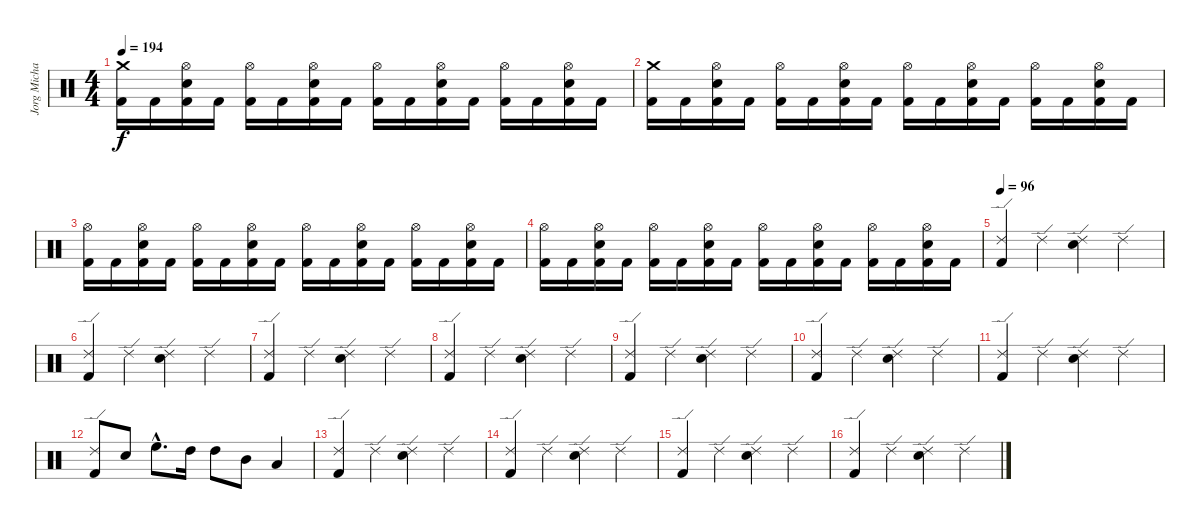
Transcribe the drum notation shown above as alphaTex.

\track ("Jorg Michael" "Jorg Micha") {instrument percussion}
\staff {score}
\articulation defaults
\ts (4 4)
\tempo 194
\clef neutral
\ks c
("Crash medium (hit)" "Kick (hit) 2").16{dy f} "Kick (hit) 2".16 ("Kick (hit) 2" "Snare (hit) 2" "Hi-Hat (open)").16 "Kick (hit) 2".16 ("Kick (hit) 2" "Hi-Hat (open)").16 "Kick (hit) 2".16 ("Kick (hit) 2" "Snare (hit) 2" "Hi-Hat (open)").16 "Kick (hit) 2".16 ("Kick (hit) 2" "Hi-Hat (open)").16 "Kick (hit) 2".16 ("Kick (hit) 2" "Snare (hit) 2" "Hi-Hat (open)").16 "Kick (hit) 2".16 ("Kick (hit) 2" "Hi-Hat (open)").16 "Kick (hit) 2".16 ("Kick (hit) 2" "Snare (hit) 2" "Hi-Hat (open)").16 "Kick (hit) 2".16 |
("Crash medium (hit)" "Kick (hit) 2").16 "Kick (hit) 2".16 ("Kick (hit) 2" "Snare (hit) 2" "Hi-Hat (open)").16 "Kick (hit) 2".16 ("Kick (hit) 2" "Hi-Hat (open)").16 "Kick (hit) 2".16 ("Kick (hit) 2" "Snare (hit) 2" "Hi-Hat (open)").16 "Kick (hit) 2".16 ("Kick (hit) 2" "Hi-Hat (open)").16 "Kick (hit) 2".16 ("Kick (hit) 2" "Snare (hit) 2" "Hi-Hat (open)").16 "Kick (hit) 2".16 ("Kick (hit) 2" "Hi-Hat (open)").16 "Kick (hit) 2".16 ("Kick (hit) 2" "Snare (hit) 2" "Hi-Hat (open)").16 "Kick (hit) 2".16 |
("Kick (hit) 2" "Hi-Hat (open)").16 "Kick (hit) 2".16 ("Kick (hit) 2" "Snare (hit) 2" "Hi-Hat (open)").16 "Kick (hit) 2".16 ("Kick (hit) 2" "Hi-Hat (open)").16 "Kick (hit) 2".16 ("Kick (hit) 2" "Snare (hit) 2" "Hi-Hat (open)").16 "Kick (hit) 2".16 ("Kick (hit) 2" "Hi-Hat (open)").16 "Kick (hit) 2".16 ("Kick (hit) 2" "Snare (hit) 2" "Hi-Hat (open)").16 "Kick (hit) 2".16 ("Kick (hit) 2" "Hi-Hat (open)").16 "Kick (hit) 2".16 ("Kick (hit) 2" "Snare (hit) 2" "Hi-Hat (open)").16 "Kick (hit) 2".16 |
("Kick (hit) 2" "Hi-Hat (open)").16 "Kick (hit) 2".16 ("Kick (hit) 2" "Snare (hit) 2" "Hi-Hat (open)").16 "Kick (hit) 2".16 ("Kick (hit) 2" "Hi-Hat (open)").16 "Kick (hit) 2".16 ("Kick (hit) 2" "Snare (hit) 2" "Hi-Hat (open)").16 "Kick (hit) 2".16 ("Kick (hit) 2" "Hi-Hat (open)").16 "Kick (hit) 2".16 ("Kick (hit) 2" "Snare (hit) 2" "Hi-Hat (open)").16 "Kick (hit) 2".16 ("Kick (hit) 2" "Hi-Hat (open)").16 "Kick (hit) 2".16 ("Kick (hit) 2" "Snare (hit) 2" "Hi-Hat (open)").16 "Kick (hit) 2".16 |
\tempo 96
("Ride (edge) 2" "Kick (hit) 2").4 "Ride (edge) 2".4 ("Ride (edge) 2" "Snare (hit) 2").4 "Ride (edge) 2".4 |
("Ride (edge) 2" "Kick (hit) 2").4 "Ride (edge) 2".4 ("Ride (edge) 2" "Snare (hit) 2").4 "Ride (edge) 2".4 |
("Ride (edge) 2" "Kick (hit) 2").4 "Ride (edge) 2".4 ("Ride (edge) 2" "Snare (hit) 2").4 "Ride (edge) 2".4 |
("Ride (edge) 2" "Kick (hit) 2").4 "Ride (edge) 2".4 ("Ride (edge) 2" "Snare (hit) 2").4 "Ride (edge) 2".4 |
("Ride (edge) 2" "Kick (hit) 2").4 "Ride (edge) 2".4 ("Ride (edge) 2" "Snare (hit) 2").4 "Ride (edge) 2".4 |
("Ride (edge) 2" "Kick (hit) 2").4 "Ride (edge) 2".4 ("Ride (edge) 2" "Snare (hit) 2").4 "Ride (edge) 2".4 |
("Ride (edge) 2" "Kick (hit) 2").4 "Ride (edge) 2".4 ("Ride (edge) 2" "Snare (hit) 2").4 "Ride (edge) 2".4 |
("Ride (edge) 2" "Kick (hit) 2").8 "Snare (hit) 2".8 "High Floor Tom (hit)"{hac}.8{d} "High Tom (hit)".16 "High Tom (hit)".8 "Mid Tom (hit)".8 "Low Tom (hit)".4 |
("Ride (edge) 2" "Kick (hit) 2").4 "Ride (edge) 2".4 ("Ride (edge) 2" "Snare (hit) 2").4 "Ride (edge) 2".4 |
("Ride (edge) 2" "Kick (hit) 2").4 "Ride (edge) 2".4 ("Ride (edge) 2" "Snare (hit) 2").4 "Ride (edge) 2".4 |
("Ride (edge) 2" "Kick (hit) 2").4 "Ride (edge) 2".4 ("Ride (edge) 2" "Snare (hit) 2").4 "Ride (edge) 2".4 |
("Ride (edge) 2" "Kick (hit) 2").4 "Ride (edge) 2".4 ("Ride (edge) 2" "Snare (hit) 2").4 "Ride (edge) 2".4
